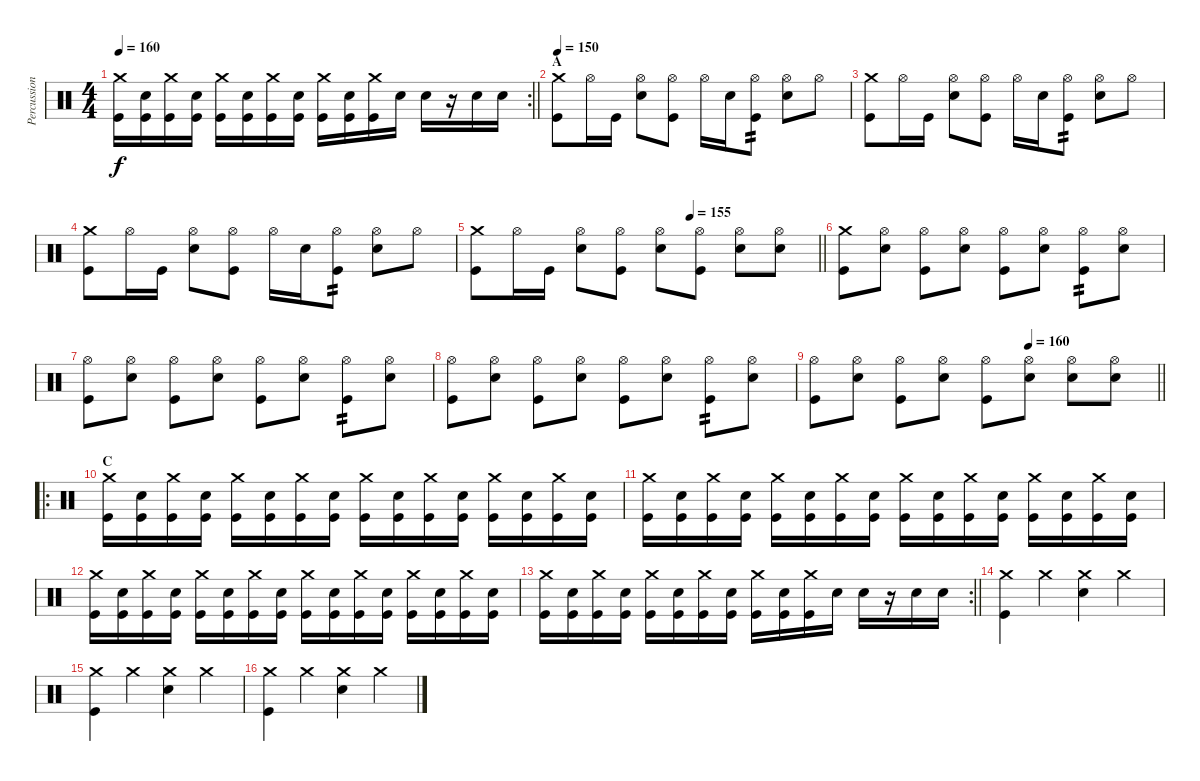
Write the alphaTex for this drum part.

\track ("Percussion" "Percussion") {instrument percussion}
\staff {score}
\articulation defaults
\rc 2
\ts (4 4)
\tempo 160
\clef neutral
\barLineRight lightlight
\ks c
("Kick (hit)" "Crash medium (hit)").16{dy f} ("Kick (hit)" "Snare (hit) 2").16 ("Kick (hit)" "Crash medium (hit)").16 ("Kick (hit)" "Snare (hit) 2").16 ("Kick (hit)" "Crash medium (hit)").16 ("Kick (hit)" "Snare (hit) 2").16 ("Kick (hit)" "Crash medium (hit)").16 ("Kick (hit)" "Snare (hit) 2").16 ("Kick (hit)" "Crash medium (hit)").16 ("Kick (hit)" "Snare (hit) 2").16 ("Kick (hit)" "Crash medium (hit)").16 "Snare (hit) 2".16 "Snare (hit) 2".16 r.16 "Snare (hit) 2".16 "Snare (hit) 2".16 |
\section ("" "A")
\tempo 150
("Kick (hit)" "Crash medium (hit)").8 "Hi-Hat (open)".16 "Kick (hit)".16 ("Snare (hit) 2" "Hi-Hat (open)").8 ("Kick (hit)" "Hi-Hat (open)").8 "Hi-Hat (open)".16 "Snare (hit) 2".16 ("Kick (hit)" "Hi-Hat (open)").8{tp 2} ("Snare (hit) 2" "Hi-Hat (open)").8 "Hi-Hat (open)".8 |
("Kick (hit)" "Crash medium (hit)").8 "Hi-Hat (open)".16 "Kick (hit)".16 ("Snare (hit) 2" "Hi-Hat (open)").8 ("Kick (hit)" "Hi-Hat (open)").8 "Hi-Hat (open)".16 "Snare (hit) 2".16 ("Kick (hit)" "Hi-Hat (open)").8{tp 2} ("Snare (hit) 2" "Hi-Hat (open)").8 "Hi-Hat (open)".8 |
("Kick (hit)" "Crash medium (hit)").8 "Hi-Hat (open)".16 "Kick (hit)".16 ("Snare (hit) 2" "Hi-Hat (open)").8 ("Kick (hit)" "Hi-Hat (open)").8 "Hi-Hat (open)".16 "Snare (hit) 2".16 ("Kick (hit)" "Hi-Hat (open)").8{tp 2} ("Snare (hit) 2" "Hi-Hat (open)").8 "Hi-Hat (open)".8 |
\tempo (155 0.625)
\barLineRight lightlight
("Kick (hit)" "Crash medium (hit)").8 "Hi-Hat (open)".16 "Kick (hit)".16 ("Snare (hit) 2" "Hi-Hat (open)").8 ("Kick (hit)" "Hi-Hat (open)").8 ("Snare (hit) 2" "Hi-Hat (open)").8 ("Kick (hit)" "Hi-Hat (open)").8 ("Snare (hit) 2" "Hi-Hat (open)").8 ("Snare (hit) 2" "Hi-Hat (open)").8 |
("Kick (hit)" "Crash medium (hit)").8 ("Snare (hit) 2" "Hi-Hat (open)").8 ("Kick (hit)" "Hi-Hat (open)").8 ("Snare (hit) 2" "Hi-Hat (open)").8 ("Kick (hit)" "Hi-Hat (open)").8 ("Snare (hit) 2" "Hi-Hat (open)").8 ("Kick (hit)" "Hi-Hat (open)").8{tp 2} ("Snare (hit) 2" "Hi-Hat (open)").8 |
("Kick (hit)" "Hi-Hat (open)").8 ("Snare (hit) 2" "Hi-Hat (open)").8 ("Kick (hit)" "Hi-Hat (open)").8 ("Snare (hit) 2" "Hi-Hat (open)").8 ("Kick (hit)" "Hi-Hat (open)").8 ("Snare (hit) 2" "Hi-Hat (open)").8 ("Kick (hit)" "Hi-Hat (open)").8{tp 2} ("Snare (hit) 2" "Hi-Hat (open)").8 |
("Kick (hit)" "Hi-Hat (open)").8 ("Snare (hit) 2" "Hi-Hat (open)").8 ("Kick (hit)" "Hi-Hat (open)").8 ("Snare (hit) 2" "Hi-Hat (open)").8 ("Kick (hit)" "Hi-Hat (open)").8 ("Snare (hit) 2" "Hi-Hat (open)").8 ("Kick (hit)" "Hi-Hat (open)").8{tp 2} ("Snare (hit) 2" "Hi-Hat (open)").8 |
\tempo (160 0.625)
\barLineRight lightlight
("Kick (hit)" "Hi-Hat (open)").8 ("Snare (hit) 2" "Hi-Hat (open)").8 ("Kick (hit)" "Hi-Hat (open)").8 ("Snare (hit) 2" "Hi-Hat (open)").8 ("Kick (hit)" "Hi-Hat (open)").8 ("Snare (hit) 2" "Hi-Hat (open)").8 ("Snare (hit) 2" "Hi-Hat (open)").8 ("Snare (hit) 2" "Hi-Hat (open)").8 |
\ro
\section ("" "C")
("Kick (hit)" "Crash medium (hit)").16 ("Kick (hit)" "Snare (hit) 2").16 ("Kick (hit)" "Crash medium (hit)").16 ("Kick (hit)" "Snare (hit) 2").16 ("Kick (hit)" "Crash medium (hit)").16 ("Kick (hit)" "Snare (hit) 2").16 ("Kick (hit)" "Crash medium (hit)").16 ("Kick (hit)" "Snare (hit) 2").16 ("Kick (hit)" "Crash medium (hit)").16 ("Kick (hit)" "Snare (hit) 2").16 ("Kick (hit)" "Crash medium (hit)").16 ("Kick (hit)" "Snare (hit) 2").16 ("Kick (hit)" "Crash medium (hit)").16 ("Kick (hit)" "Snare (hit) 2").16 ("Kick (hit)" "Crash medium (hit)").16 ("Kick (hit)" "Snare (hit) 2").16 |
("Kick (hit)" "Crash medium (hit)").16 ("Kick (hit)" "Snare (hit) 2").16 ("Kick (hit)" "Crash medium (hit)").16 ("Kick (hit)" "Snare (hit) 2").16 ("Kick (hit)" "Crash medium (hit)").16 ("Kick (hit)" "Snare (hit) 2").16 ("Kick (hit)" "Crash medium (hit)").16 ("Kick (hit)" "Snare (hit) 2").16 ("Kick (hit)" "Crash medium (hit)").16 ("Kick (hit)" "Snare (hit) 2").16 ("Kick (hit)" "Crash medium (hit)").16 ("Kick (hit)" "Snare (hit) 2").16 ("Kick (hit)" "Crash medium (hit)").16 ("Kick (hit)" "Snare (hit) 2").16 ("Kick (hit)" "Crash medium (hit)").16 ("Kick (hit)" "Snare (hit) 2").16 |
("Kick (hit)" "Crash medium (hit)").16 ("Kick (hit)" "Snare (hit) 2").16 ("Kick (hit)" "Crash medium (hit)").16 ("Kick (hit)" "Snare (hit) 2").16 ("Kick (hit)" "Crash medium (hit)").16 ("Kick (hit)" "Snare (hit) 2").16 ("Kick (hit)" "Crash medium (hit)").16 ("Kick (hit)" "Snare (hit) 2").16 ("Kick (hit)" "Crash medium (hit)").16 ("Kick (hit)" "Snare (hit) 2").16 ("Kick (hit)" "Crash medium (hit)").16 ("Kick (hit)" "Snare (hit) 2").16 ("Kick (hit)" "Crash medium (hit)").16 ("Kick (hit)" "Snare (hit) 2").16 ("Kick (hit)" "Crash medium (hit)").16 ("Kick (hit)" "Snare (hit) 2").16 |
\rc 2
\barLineRight lightlight
("Kick (hit)" "Crash medium (hit)").16 ("Kick (hit)" "Snare (hit) 2").16 ("Kick (hit)" "Crash medium (hit)").16 ("Kick (hit)" "Snare (hit) 2").16 ("Kick (hit)" "Crash medium (hit)").16 ("Kick (hit)" "Snare (hit) 2").16 ("Kick (hit)" "Crash medium (hit)").16 ("Kick (hit)" "Snare (hit) 2").16 ("Kick (hit)" "Crash medium (hit)").16 ("Kick (hit)" "Snare (hit) 2").16 ("Kick (hit)" "Crash medium (hit)").16 "Snare (hit) 2".16 "Snare (hit) 2".16 r.16 "Snare (hit) 2".16 "Snare (hit) 2".16 |
("Kick (hit)" "Crash medium (hit)").4 "Crash medium (hit)".4 ("Snare (hit) 2" "Crash medium (hit)").4 "Crash medium (hit)".4 |
("Kick (hit)" "Crash medium (hit)").4 "Crash medium (hit)".4 ("Snare (hit) 2" "Crash medium (hit)").4 "Crash medium (hit)".4 |
("Kick (hit)" "Crash medium (hit)").4 "Crash medium (hit)".4 ("Snare (hit) 2" "Crash medium (hit)").4 "Crash medium (hit)".4
